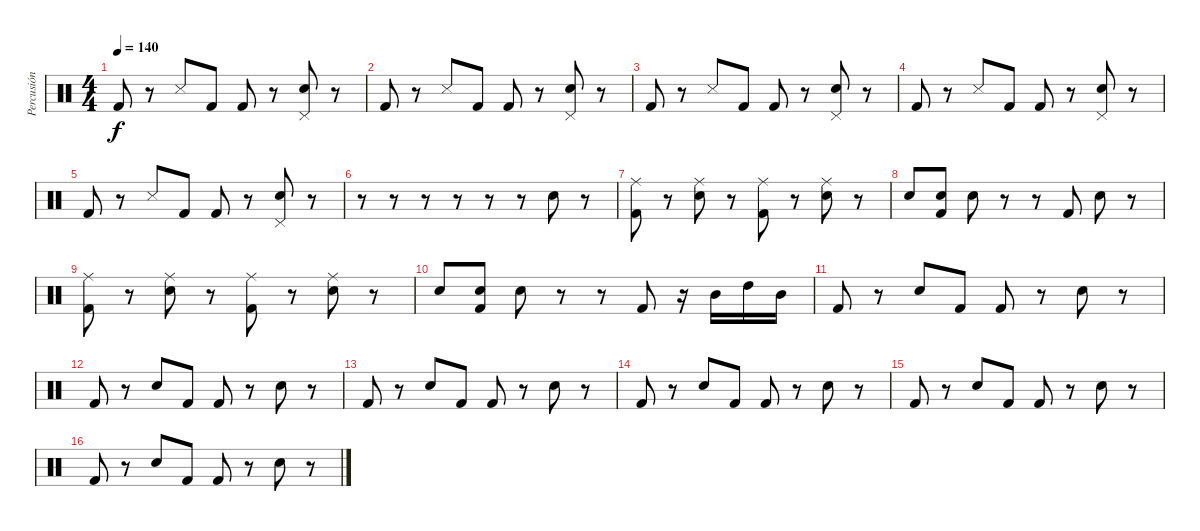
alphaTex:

\track ("Percusión" "Percusión") {instrument percussion}
\staff {score}
\articulation defaults
\ts (4 4)
\tempo 140
\clef neutral
\ks c "Kick (hit) 2".8{dy f}
r.8 "Snare (side stick) 3".8 "Kick (hit) 2".8 "Kick (hit) 2".8 r.8 ("Pedal Hi-Hat (hit)" "Snare (hit) 2").8 r.8 |
"Kick (hit) 2".8 r.8 "Snare (side stick) 3".8 "Kick (hit) 2".8 "Kick (hit) 2".8 r.8 ("Pedal Hi-Hat (hit)" "Snare (hit) 2").8 r.8 |
"Kick (hit) 2".8 r.8 "Snare (side stick) 3".8 "Kick (hit) 2".8 "Kick (hit) 2".8 r.8 ("Pedal Hi-Hat (hit)" "Snare (hit) 2").8 r.8 |
"Kick (hit) 2".8 r.8 "Snare (side stick) 3".8 "Kick (hit) 2".8 "Kick (hit) 2".8 r.8 ("Pedal Hi-Hat (hit)" "Snare (hit) 2").8 r.8 |
"Kick (hit) 2".8 r.8 "Snare (side stick) 3".8 "Kick (hit) 2".8 "Kick (hit) 2".8 r.8 ("Pedal Hi-Hat (hit)" "Snare (hit) 2").8 r.8 |
r.8 r.8 r.8 r.8 r.8 r.8 "Snare (hit) 2".8 r.8 |
("Ride (middle)" "Kick (hit) 2").8 r.8 ("Ride (middle)" "Snare (hit) 2").8 r.8 ("Ride (middle)" "Kick (hit) 2").8 r.8 ("Ride (middle)" "Snare (hit) 2").8 r.8 |
"Snare (hit) 2".8 ("Snare (hit) 2" "Kick (hit) 2").8 "Snare (hit) 2".8 r.8 r.8 "Kick (hit) 2".8 "Snare (hit) 2".8 r.8 |
("Ride (middle)" "Kick (hit) 2").8 r.8 ("Ride (middle)" "Snare (hit) 2").8 r.8 ("Ride (middle)" "Kick (hit) 2").8 r.8 ("Ride (middle)" "Snare (hit) 2").8 r.8 |
"Snare (hit) 2".8 ("Snare (hit) 2" "Kick (hit) 2").8 "Snare (hit) 2".8 r.8 r.8 "Kick (hit) 2".8 r.16 "Mid Tom (hit)".16 "High Tom (hit)".16 "Mid Tom (hit)".16 |
"Kick (hit) 2".8 r.8 "Snare (hit) 2".8 "Kick (hit) 2".8 "Kick (hit) 2".8 r.8 "Snare (hit) 2".8 r.8 |
"Kick (hit) 2".8 r.8 "Snare (hit) 2".8 "Kick (hit) 2".8 "Kick (hit) 2".8 r.8 "Snare (hit) 2".8 r.8 |
"Kick (hit) 2".8 r.8 "Snare (hit) 2".8 "Kick (hit) 2".8 "Kick (hit) 2".8 r.8 "Snare (hit) 2".8 r.8 |
"Kick (hit) 2".8 r.8 "Snare (hit) 2".8 "Kick (hit) 2".8 "Kick (hit) 2".8 r.8 "Snare (hit) 2".8 r.8 |
"Kick (hit) 2".8 r.8 "Snare (hit) 2".8 "Kick (hit) 2".8 "Kick (hit) 2".8 r.8 "Snare (hit) 2".8 r.8 |
"Kick (hit) 2".8 r.8 "Snare (hit) 2".8 "Kick (hit) 2".8 "Kick (hit) 2".8 r.8 "Snare (hit) 2".8 r.8
